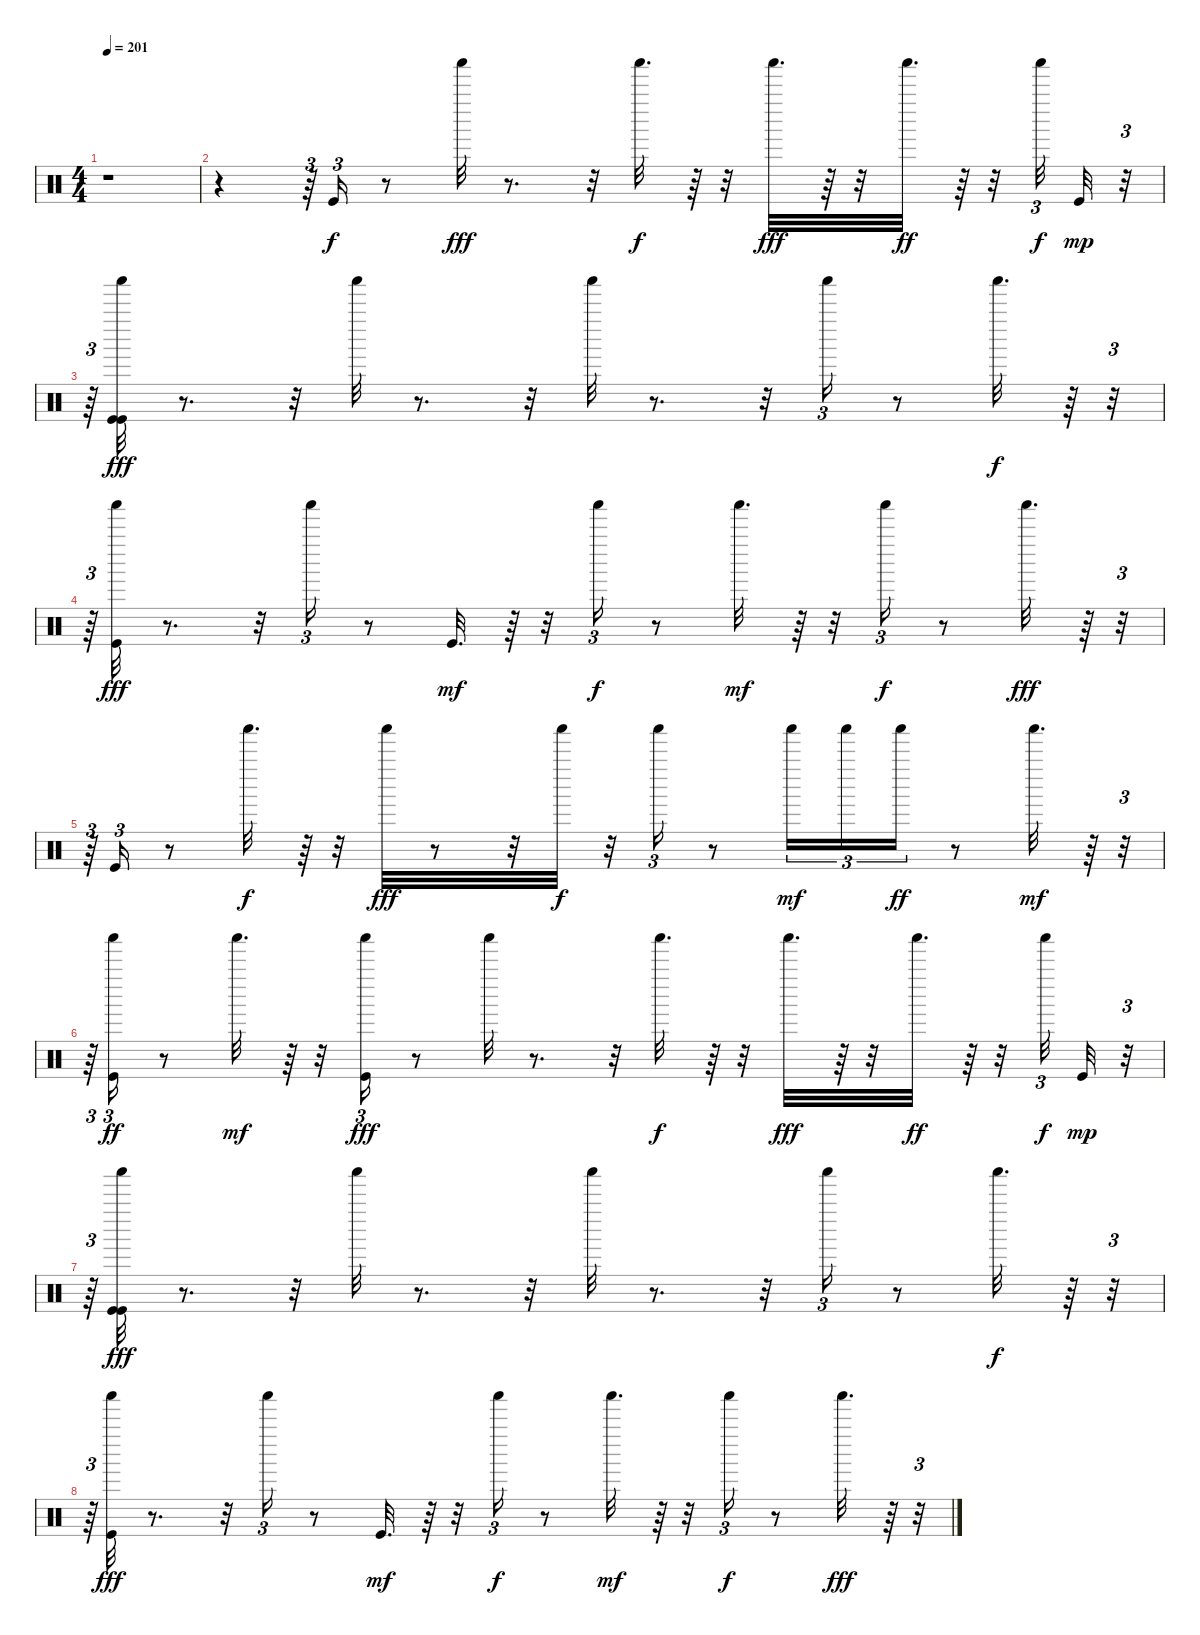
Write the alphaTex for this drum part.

\track "" {instrument percussion}
\staff {score}
\articulation defaults
\ts (4 4)
\tempo 201
\clef neutral
\ks c
r.1{dy fff} |
r.4 r.64{tu (3 2)} "Kick (hit)".16{tu (3 2) dy f} r.8 "Shaker (hit)".32{dy fff} r.8{d} r.32 "Shaker (hit)".32{d dy f} r.64 r.32 "Shaker (hit)".32{d dy fff} r.64 r.32 "Shaker (hit)".32{d dy ff} r.64 r.32 "Shaker (hit)".32{tu (3 2) dy f} "Kick (hit)".32{dy mp} r.32{tu (3 2)} |
r.64{tu (3 2)} ("Shaker (hit)" "Kick (hit)" "Kick (hit)").32{dy fff} r.8{d} r.32 "Shaker (hit)".32 r.8{d} r.32 "Shaker (hit)".32 r.8{d} r.32 "Shaker (hit)".16{tu (3 2)} r.8 "Shaker (hit)".32{d dy f} r.64 r.32{tu (3 2)} |
r.64{tu (3 2)} ("Shaker (hit)" "Kick (hit)").32{dy fff} r.8{d} r.32 "Shaker (hit)".16{tu (3 2)} r.8 "Kick (hit)".32{d dy mf} r.64 r.32 "Shaker (hit)".16{tu (3 2) dy f} r.8 "Shaker (hit)".32{d dy mf} r.64 r.32 "Shaker (hit)".16{tu (3 2) dy f} r.8 "Shaker (hit)".32{d dy fff} r.64 r.32{tu (3 2)} |
r.64{tu (3 2)} "Kick (hit)".16{tu (3 2)} r.8 "Shaker (hit)".32{d dy f} r.64 r.32 "Shaker (hit)".32{dy fff} r.8 r.32 "Shaker (hit)".32{dy f} r.32 "Shaker (hit)".16{tu (3 2)} r.8 "Shaker (hit)".16{tu (3 2) dy mf} "Shaker (hit)".16{tu (3 2)} "Shaker (hit)".16{tu (3 2) dy ff} r.8 "Shaker (hit)".32{d dy mf} r.64 r.32{tu (3 2)} |
r.64{tu (3 2)} ("Shaker (hit)" "Kick (hit)").16{tu (3 2) dy ff} r.8 "Shaker (hit)".32{d dy mf} r.64 r.32 ("Shaker (hit)" "Kick (hit)").16{tu (3 2) dy fff} r.8 "Shaker (hit)".32 r.8{d} r.32 "Shaker (hit)".32{d dy f} r.64 r.32 "Shaker (hit)".32{d dy fff} r.64 r.32 "Shaker (hit)".32{d dy ff} r.64 r.32 "Shaker (hit)".32{tu (3 2) dy f} "Kick (hit)".32{dy mp} r.32{tu (3 2)} |
r.64{tu (3 2)} ("Shaker (hit)" "Kick (hit)" "Kick (hit)").32{dy fff} r.8{d} r.32 "Shaker (hit)".32 r.8{d} r.32 "Shaker (hit)".32 r.8{d} r.32 "Shaker (hit)".16{tu (3 2)} r.8 "Shaker (hit)".32{d dy f} r.64 r.32{tu (3 2)} |
r.64{tu (3 2)} ("Shaker (hit)" "Kick (hit)").32{dy fff} r.8{d} r.32 "Shaker (hit)".16{tu (3 2)} r.8 "Kick (hit)".32{d dy mf} r.64 r.32 "Shaker (hit)".16{tu (3 2) dy f} r.8 "Shaker (hit)".32{d dy mf} r.64 r.32 "Shaker (hit)".16{tu (3 2) dy f} r.8 "Shaker (hit)".32{d dy fff} r.64 r.32{tu (3 2)}
